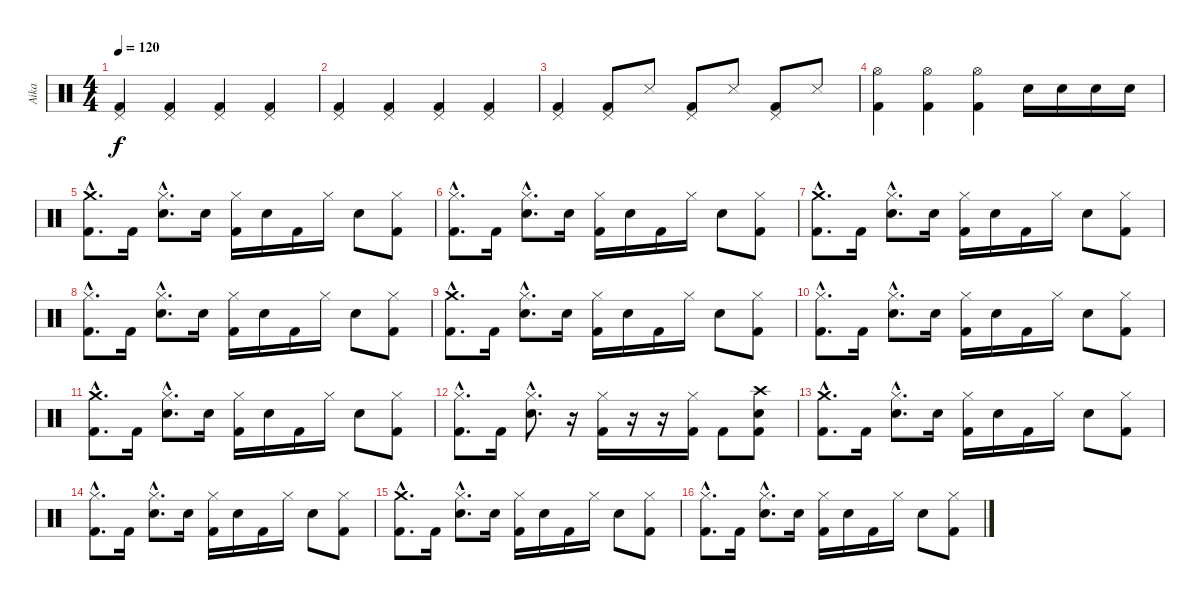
\track ("Aika" "Aika") {instrument percussion}
\staff {score}
\articulation defaults
\ts (4 4)
\tempo 120
\clef neutral
\ks c
("Pedal Hi-Hat (hit)" "Kick (hit) 2").4{dy f} ("Pedal Hi-Hat (hit)" "Kick (hit) 2").4 ("Pedal Hi-Hat (hit)" "Kick (hit) 2").4 ("Pedal Hi-Hat (hit)" "Kick (hit) 2").4 |
("Pedal Hi-Hat (hit)" "Kick (hit) 2").4 ("Pedal Hi-Hat (hit)" "Kick (hit) 2").4 ("Pedal Hi-Hat (hit)" "Kick (hit) 2").4 ("Pedal Hi-Hat (hit)" "Kick (hit) 2").4 |
("Pedal Hi-Hat (hit)" "Kick (hit) 2").4 ("Pedal Hi-Hat (hit)" "Kick (hit) 2").8 "Snare (side stick) 3".8 ("Pedal Hi-Hat (hit)" "Kick (hit) 2").8 "Snare (side stick) 3".8 ("Pedal Hi-Hat (hit)" "Kick (hit) 2").8 "Snare (side stick) 3".8 |
("Hi-Hat (open)" "Kick (hit) 2").4 ("Hi-Hat (open)" "Kick (hit) 2").4 ("Hi-Hat (open)" "Kick (hit) 2").4 "Snare (hit) 2".16 "Snare (hit) 2".16 "Snare (hit) 2".16 "Snare (hit) 2".16 |
("Crash medium (hit)"{hac} "Kick (hit) 2"{hac}).8{d} "Kick (hit) 2".16 ("Hi-Hat (closed)"{hac} "Snare (hit) 2"{hac}).8{d} "Snare (hit) 2".16 ("Hi-Hat (closed)" "Kick (hit) 2").16 "Snare (hit) 2".16 "Kick (hit) 2".16 "Hi-Hat (closed)".16 "Snare (hit) 2".8 ("Hi-Hat (closed)" "Kick (hit) 2").8 |
("Hi-Hat (closed)"{hac} "Kick (hit) 2"{hac}).8{d} "Kick (hit) 2".16 ("Hi-Hat (closed)"{hac} "Snare (hit) 2"{hac}).8{d} "Snare (hit) 2".16 ("Hi-Hat (closed)" "Kick (hit) 2").16 "Snare (hit) 2".16 "Kick (hit) 2".16 "Hi-Hat (closed)".16 "Snare (hit) 2".8 ("Hi-Hat (closed)" "Kick (hit) 2").8 |
("Crash medium (hit)"{hac} "Kick (hit) 2"{hac}).8{d} "Kick (hit) 2".16 ("Hi-Hat (closed)"{hac} "Snare (hit) 2"{hac}).8{d} "Snare (hit) 2".16 ("Hi-Hat (closed)" "Kick (hit) 2").16 "Snare (hit) 2".16 "Kick (hit) 2".16 "Hi-Hat (closed)".16 "Snare (hit) 2".8 ("Hi-Hat (closed)" "Kick (hit) 2").8 |
("Hi-Hat (closed)"{hac} "Kick (hit) 2"{hac}).8{d} "Kick (hit) 2".16 ("Hi-Hat (closed)"{hac} "Snare (hit) 2"{hac}).8{d} "Snare (hit) 2".16 ("Hi-Hat (closed)" "Kick (hit) 2").16 "Snare (hit) 2".16 "Kick (hit) 2".16 "Hi-Hat (closed)".16 "Snare (hit) 2".8 ("Hi-Hat (closed)" "Kick (hit) 2").8 |
("Crash medium (hit)"{hac} "Kick (hit) 2"{hac}).8{d} "Kick (hit) 2".16 ("Hi-Hat (closed)"{hac} "Snare (hit) 2"{hac}).8{d} "Snare (hit) 2".16 ("Hi-Hat (closed)" "Kick (hit) 2").16 "Snare (hit) 2".16 "Kick (hit) 2".16 "Hi-Hat (closed)".16 "Snare (hit) 2".8 ("Hi-Hat (closed)" "Kick (hit) 2").8 |
("Hi-Hat (closed)"{hac} "Kick (hit) 2"{hac}).8{d} "Kick (hit) 2".16 ("Hi-Hat (closed)"{hac} "Snare (hit) 2"{hac}).8{d} "Snare (hit) 2".16 ("Hi-Hat (closed)" "Kick (hit) 2").16 "Snare (hit) 2".16 "Kick (hit) 2".16 "Hi-Hat (closed)".16 "Snare (hit) 2".8 ("Hi-Hat (closed)" "Kick (hit) 2").8 |
("Crash medium (hit)"{hac} "Kick (hit) 2"{hac}).8{d} "Kick (hit) 2".16 ("Hi-Hat (closed)"{hac} "Snare (hit) 2"{hac}).8{d} "Snare (hit) 2".16 ("Hi-Hat (closed)" "Kick (hit) 2").16 "Snare (hit) 2".16 "Kick (hit) 2".16 "Hi-Hat (closed)".16 "Snare (hit) 2".8 ("Hi-Hat (closed)" "Kick (hit) 2").8 |
("Hi-Hat (closed)"{hac} "Kick (hit) 2"{hac}).8{d} "Kick (hit) 2".16 ("Hi-Hat (closed)"{hac} "Snare (hit) 2"{hac}).8{d} r.16 ("Hi-Hat (closed)" "Kick (hit) 2").16 r.16 r.16 ("Hi-Hat (closed)" "Kick (hit) 2").16 "Kick (hit) 2".8 ("Crash high (hit)" "Snare (hit) 2" "Kick (hit) 2").8 |
("Crash medium (hit)"{hac} "Kick (hit) 2"{hac}).8{d} "Kick (hit) 2".16 ("Hi-Hat (closed)"{hac} "Snare (hit) 2"{hac}).8{d} "Snare (hit) 2".16 ("Hi-Hat (closed)" "Kick (hit) 2").16 "Snare (hit) 2".16 "Kick (hit) 2".16 "Hi-Hat (closed)".16 "Snare (hit) 2".8 ("Hi-Hat (closed)" "Kick (hit) 2").8 |
("Hi-Hat (closed)"{hac} "Kick (hit) 2"{hac}).8{d} "Kick (hit) 2".16 ("Hi-Hat (closed)"{hac} "Snare (hit) 2"{hac}).8{d} "Snare (hit) 2".16 ("Hi-Hat (closed)" "Kick (hit) 2").16 "Snare (hit) 2".16 "Kick (hit) 2".16 "Hi-Hat (closed)".16 "Snare (hit) 2".8 ("Hi-Hat (closed)" "Kick (hit) 2").8 |
("Crash medium (hit)"{hac} "Kick (hit) 2"{hac}).8{d} "Kick (hit) 2".16 ("Hi-Hat (closed)"{hac} "Snare (hit) 2"{hac}).8{d} "Snare (hit) 2".16 ("Hi-Hat (closed)" "Kick (hit) 2").16 "Snare (hit) 2".16 "Kick (hit) 2".16 "Hi-Hat (closed)".16 "Snare (hit) 2".8 ("Hi-Hat (closed)" "Kick (hit) 2").8 |
("Hi-Hat (closed)"{hac} "Kick (hit) 2"{hac}).8{d} "Kick (hit) 2".16 ("Hi-Hat (closed)"{hac} "Snare (hit) 2"{hac}).8{d} "Snare (hit) 2".16 ("Hi-Hat (closed)" "Kick (hit) 2").16 "Snare (hit) 2".16 "Kick (hit) 2".16 "Hi-Hat (closed)".16 "Snare (hit) 2".8 ("Hi-Hat (closed)" "Kick (hit) 2").8
